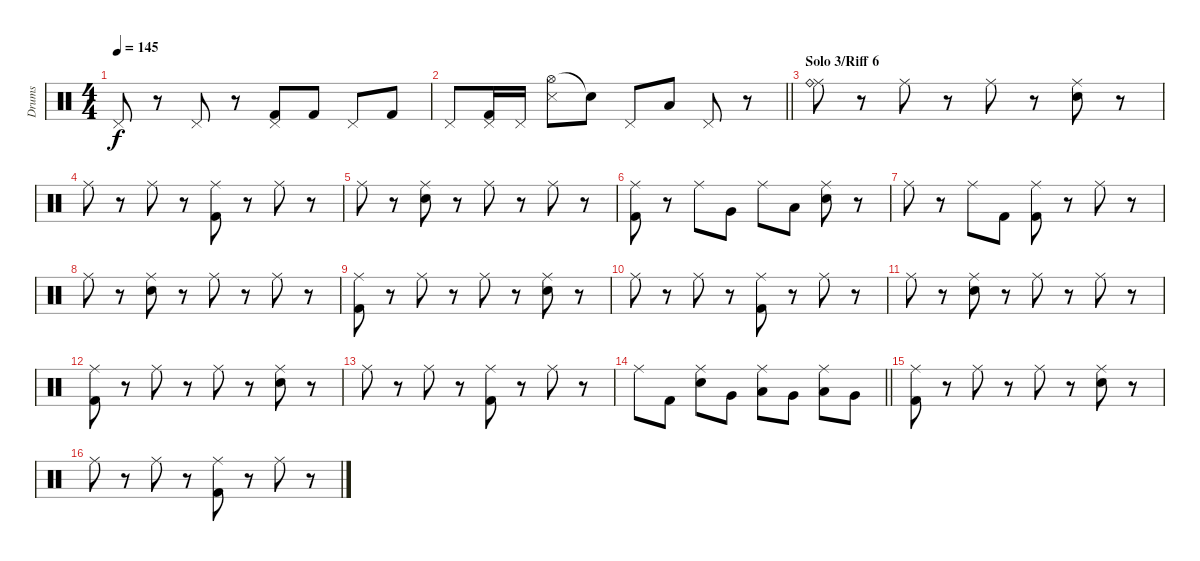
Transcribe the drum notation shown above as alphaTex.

\track ("Drums" "Drums") {instrument percussion}
\staff {score}
\articulation defaults
\ts (4 4)
\tempo 145
\clef neutral
\ks c "Pedal Hi-Hat (hit)".8{dy f}
r.8 "Pedal Hi-Hat (hit)".8 r.8 ("Pedal Hi-Hat (hit)" "Kick (hit) 2").8 "Kick (hit) 2".8 "Pedal Hi-Hat (hit)".8 "Kick (hit) 2".8 |
\barLineRight lightlight "Pedal Hi-Hat (hit)".8
("Pedal Hi-Hat (hit)" "Kick (hit) 2").16 "Pedal Hi-Hat (hit)".16 ("Hi-Hat (open)" "Snare (side stick) 3").8 "Snare (hit)"{t}.8 "Pedal Hi-Hat (hit)".8 "Low Tom (hit)".8 "Pedal Hi-Hat (hit)".8 r.8 |
\section ("" "Solo 3/Riff 6")
("Ride (middle)" "Ride (bell)").8 r.8 "Ride (middle)".8 r.8 "Ride (middle)".8 r.8 ("Ride (middle)" "Electric Snare (hit)").8 r.8 |
"Ride (middle)".8 r.8 "Ride (middle)".8 r.8 ("Ride (middle)" "Kick (hit) 2").8 r.8 "Ride (middle)".8 r.8 |
"Ride (middle)".8 r.8 ("Ride (middle)" "Electric Snare (hit)").8 r.8 "Ride (middle)".8 r.8 "Ride (middle)".8 r.8 |
("Ride (middle)" "Kick (hit) 2").8 r.8 "Ride (middle)".8 "Very Low Tom (hit)".8 "Ride (middle)".8 "Low Tom (hit)".8 ("Ride (middle)" "Electric Snare (hit)").8 r.8 |
"Ride (middle)".8 r.8 "Ride (middle)".8 "Kick (hit) 2".8 ("Ride (middle)" "Kick (hit) 2").8 r.8 "Ride (middle)".8 r.8 |
"Ride (middle)".8 r.8 ("Ride (middle)" "Electric Snare (hit)").8 r.8 "Ride (middle)".8 r.8 "Ride (middle)".8 r.8 |
("Ride (middle)" "Kick (hit) 2").8 r.8 "Ride (middle)".8 r.8 "Ride (middle)".8 r.8 ("Ride (middle)" "Electric Snare (hit)").8 r.8 |
"Ride (middle)".8 r.8 "Ride (middle)".8 r.8 ("Ride (middle)" "Kick (hit) 2").8 r.8 "Ride (middle)".8 r.8 |
"Ride (middle)".8 r.8 ("Ride (middle)" "Electric Snare (hit)").8 r.8 "Ride (middle)".8 r.8 "Ride (middle)".8 r.8 |
("Ride (middle)" "Kick (hit) 2").8 r.8 "Ride (middle)".8 r.8 "Ride (middle)".8 r.8 ("Ride (middle)" "Electric Snare (hit)").8 r.8 |
"Ride (middle)".8 r.8 "Ride (middle)".8 r.8 ("Ride (middle)" "Kick (hit) 2").8 r.8 "Ride (middle)".8 r.8 |
\barLineRight lightlight "Ride (middle)".8 "Kick (hit) 2".8
("Ride (middle)" "Electric Snare (hit)").8 "Very Low Tom (hit)".8 ("Ride (middle)" "Low Tom (hit)").8 "Very Low Tom (hit)".8 ("Ride (middle)" "Low Floor Tom (hit)").8 "Very Low Tom (hit)".8 |
("Ride (middle)" "Kick (hit) 2").8 r.8 "Ride (middle)".8 r.8 "Ride (middle)".8 r.8 ("Ride (middle)" "Electric Snare (hit)").8 r.8 |
"Ride (middle)".8 r.8 "Ride (middle)".8 r.8 ("Ride (middle)" "Kick (hit) 2").8 r.8 "Ride (middle)".8 r.8
